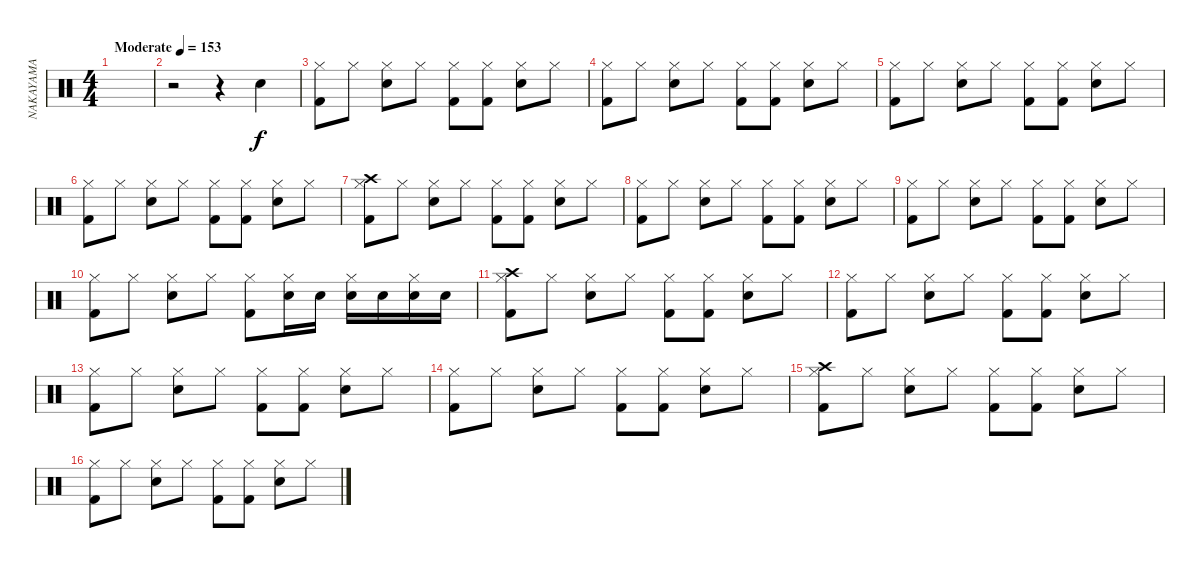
\track ("NAKAYAMA" "NAKAYAMA") {instrument percussion}
\staff {score}
\articulation defaults
\ts (4 4)
\tempo (153 "Moderate")
\clef neutral
\ks c
|
r.2 r.4 "Snare (hit) 2".4 |
("Hi-Hat (closed)" "Kick (hit) 2").8 "Hi-Hat (closed)".8 ("Hi-Hat (closed)" "Snare (hit) 2").8 "Hi-Hat (closed)".8 ("Hi-Hat (closed)" "Kick (hit) 2").8 ("Hi-Hat (closed)" "Kick (hit) 2").8 ("Hi-Hat (closed)" "Snare (hit) 2").8 "Hi-Hat (closed)".8 |
("Hi-Hat (closed)" "Kick (hit) 2").8 "Hi-Hat (closed)".8 ("Hi-Hat (closed)" "Snare (hit) 2").8 "Hi-Hat (closed)".8 ("Hi-Hat (closed)" "Kick (hit) 2").8 ("Hi-Hat (closed)" "Kick (hit) 2").8 ("Hi-Hat (closed)" "Snare (hit) 2").8 "Hi-Hat (closed)".8 |
("Hi-Hat (closed)" "Kick (hit) 2").8 "Hi-Hat (closed)".8 ("Hi-Hat (closed)" "Snare (hit) 2").8 "Hi-Hat (closed)".8 ("Hi-Hat (closed)" "Kick (hit) 2").8 ("Hi-Hat (closed)" "Kick (hit) 2").8 ("Hi-Hat (closed)" "Snare (hit) 2").8 "Hi-Hat (closed)".8 |
("Hi-Hat (closed)" "Kick (hit) 2").8 "Hi-Hat (closed)".8 ("Hi-Hat (closed)" "Snare (hit) 2").8 "Hi-Hat (closed)".8 ("Hi-Hat (closed)" "Kick (hit) 2").8 ("Hi-Hat (closed)" "Kick (hit) 2").8 ("Hi-Hat (closed)" "Snare (hit) 2").8 "Hi-Hat (closed)".8 |
("Crash high (hit)" "Hi-Hat (closed)" "Kick (hit) 2").8 "Hi-Hat (closed)".8 ("Hi-Hat (closed)" "Snare (hit) 2").8 "Hi-Hat (closed)".8 ("Hi-Hat (closed)" "Kick (hit) 2").8 ("Hi-Hat (closed)" "Kick (hit) 2").8 ("Hi-Hat (closed)" "Snare (hit) 2").8 "Hi-Hat (closed)".8 |
("Hi-Hat (closed)" "Kick (hit) 2").8 "Hi-Hat (closed)".8 ("Hi-Hat (closed)" "Snare (hit) 2").8 "Hi-Hat (closed)".8 ("Hi-Hat (closed)" "Kick (hit) 2").8 ("Hi-Hat (closed)" "Kick (hit) 2").8 ("Hi-Hat (closed)" "Snare (hit) 2").8 "Hi-Hat (closed)".8 |
("Hi-Hat (closed)" "Kick (hit) 2").8 "Hi-Hat (closed)".8 ("Hi-Hat (closed)" "Snare (hit) 2").8 "Hi-Hat (closed)".8 ("Hi-Hat (closed)" "Kick (hit) 2").8 ("Hi-Hat (closed)" "Kick (hit) 2").8 ("Hi-Hat (closed)" "Snare (hit) 2").8 "Hi-Hat (closed)".8 |
("Hi-Hat (closed)" "Kick (hit) 2").8 "Hi-Hat (closed)".8 ("Hi-Hat (closed)" "Snare (hit) 2").8 "Hi-Hat (closed)".8 ("Hi-Hat (closed)" "Kick (hit) 2").8 ("Hi-Hat (closed)" "Snare (hit) 2").16 "Snare (hit) 2".16 ("Hi-Hat (closed)" "Snare (hit) 2").16 "Snare (hit) 2".16 ("Hi-Hat (closed)" "Snare (hit) 2").16 "Snare (hit) 2".16 |
("Crash high (hit)" "Hi-Hat (closed)" "Kick (hit) 2").8 "Hi-Hat (closed)".8 ("Hi-Hat (closed)" "Snare (hit) 2").8 "Hi-Hat (closed)".8 ("Hi-Hat (closed)" "Kick (hit) 2").8 ("Hi-Hat (closed)" "Kick (hit) 2").8 ("Hi-Hat (closed)" "Snare (hit) 2").8 "Hi-Hat (closed)".8 |
("Hi-Hat (closed)" "Kick (hit) 2").8 "Hi-Hat (closed)".8 ("Hi-Hat (closed)" "Snare (hit) 2").8 "Hi-Hat (closed)".8 ("Hi-Hat (closed)" "Kick (hit) 2").8 ("Hi-Hat (closed)" "Kick (hit) 2").8 ("Hi-Hat (closed)" "Snare (hit) 2").8 "Hi-Hat (closed)".8 |
("Hi-Hat (closed)" "Kick (hit) 2").8 "Hi-Hat (closed)".8 ("Hi-Hat (closed)" "Snare (hit) 2").8 "Hi-Hat (closed)".8 ("Hi-Hat (closed)" "Kick (hit) 2").8 ("Hi-Hat (closed)" "Kick (hit) 2").8 ("Hi-Hat (closed)" "Snare (hit) 2").8 "Hi-Hat (closed)".8 |
("Hi-Hat (closed)" "Kick (hit) 2").8 "Hi-Hat (closed)".8 ("Hi-Hat (closed)" "Snare (hit) 2").8 "Hi-Hat (closed)".8 ("Hi-Hat (closed)" "Kick (hit) 2").8 ("Hi-Hat (closed)" "Kick (hit) 2").8 ("Hi-Hat (closed)" "Snare (hit) 2").8 "Hi-Hat (closed)".8 |
("Crash high (hit)" "Hi-Hat (closed)" "Kick (hit) 2").8 "Hi-Hat (closed)".8 ("Hi-Hat (closed)" "Snare (hit) 2").8 "Hi-Hat (closed)".8 ("Hi-Hat (closed)" "Kick (hit) 2").8 ("Hi-Hat (closed)" "Kick (hit) 2").8 ("Hi-Hat (closed)" "Snare (hit) 2").8 "Hi-Hat (closed)".8 |
("Hi-Hat (closed)" "Kick (hit) 2").8 "Hi-Hat (closed)".8 ("Hi-Hat (closed)" "Snare (hit) 2").8 "Hi-Hat (closed)".8 ("Hi-Hat (closed)" "Kick (hit) 2").8 ("Hi-Hat (closed)" "Kick (hit) 2").8 ("Hi-Hat (closed)" "Snare (hit) 2").8 "Hi-Hat (closed)".8
